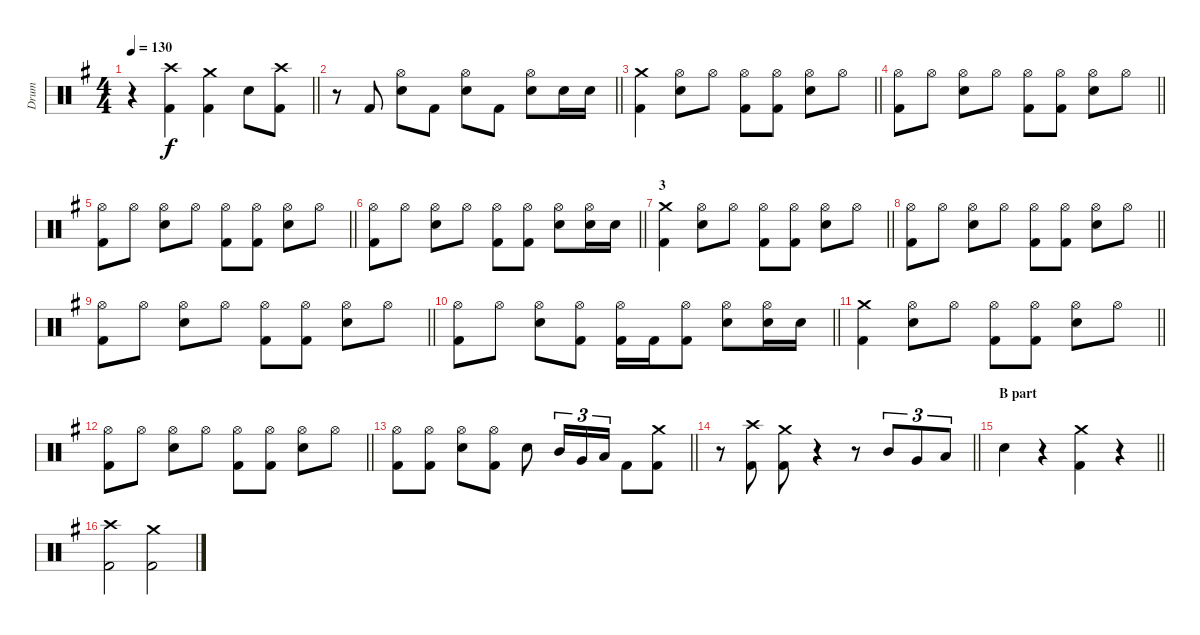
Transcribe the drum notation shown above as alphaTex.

\track ("Drum" "Drum") {instrument percussion}
\staff {score}
\articulation defaults
\ts (4 4)
\section ("" "")
\tempo 130
\clef neutral
\barLineRight lightlight
\ks eminor
r.4{dy f} ("Crash high (hit)" "Kick (hit) 2").4 ("Crash medium (hit)" "Kick (hit) 2").4 "Snare (hit) 2".8 ("Crash high (hit)" "Kick (hit) 2").8 |
\section ("" "")
\barLineRight lightlight
r.8 "Kick (hit) 2".8 ("Hi-Hat (open)" "Snare (hit) 2").8 "Kick (hit) 2".8 ("Hi-Hat (open)" "Snare (hit) 2").8 "Kick (hit) 2".8 ("Hi-Hat (open)" "Snare (hit) 2").8 "Snare (hit) 2".16 "Snare (hit) 2".16 |
\barLineRight lightlight
("Crash medium (hit)" "Kick (hit) 2").4 ("Hi-Hat (open)" "Snare (hit) 2").8 "Hi-Hat (open)".8 ("Hi-Hat (open)" "Kick (hit) 2").8 ("Hi-Hat (open)" "Kick (hit) 2").8 ("Hi-Hat (open)" "Snare (hit) 2").8 "Hi-Hat (open)".8 |
\barLineRight lightlight
("Hi-Hat (open)" "Kick (hit) 2").8 "Hi-Hat (open)".8 ("Hi-Hat (open)" "Snare (hit) 2").8 "Hi-Hat (open)".8 ("Hi-Hat (open)" "Kick (hit) 2").8 ("Hi-Hat (open)" "Kick (hit) 2").8 ("Hi-Hat (open)" "Snare (hit) 2").8 "Hi-Hat (open)".8 |
\barLineRight lightlight
("Hi-Hat (open)" "Kick (hit) 2").8 "Hi-Hat (open)".8 ("Hi-Hat (open)" "Snare (hit) 2").8 "Hi-Hat (open)".8 ("Hi-Hat (open)" "Kick (hit) 2").8 ("Hi-Hat (open)" "Kick (hit) 2").8 ("Hi-Hat (open)" "Snare (hit) 2").8 "Hi-Hat (open)".8 |
\barLineRight lightlight
("Hi-Hat (open)" "Kick (hit) 2").8 "Hi-Hat (open)".8 ("Hi-Hat (open)" "Snare (hit) 2").8 "Hi-Hat (open)".8 ("Hi-Hat (open)" "Kick (hit) 2").8 ("Hi-Hat (open)" "Kick (hit) 2").8 ("Hi-Hat (open)" "Snare (hit) 2").8 ("Hi-Hat (open)" "Snare (hit) 2").16 "Snare (hit) 2".16 |
\section ("" "3")
\barLineRight lightlight
("Crash medium (hit)" "Kick (hit) 2").4 ("Hi-Hat (open)" "Snare (hit) 2").8 "Hi-Hat (open)".8 ("Hi-Hat (open)" "Kick (hit) 2").8 ("Hi-Hat (open)" "Kick (hit) 2").8 ("Hi-Hat (open)" "Snare (hit) 2").8 "Hi-Hat (open)".8 |
\barLineRight lightlight
("Hi-Hat (open)" "Kick (hit) 2").8 "Hi-Hat (open)".8 ("Hi-Hat (open)" "Snare (hit) 2").8 "Hi-Hat (open)".8 ("Hi-Hat (open)" "Kick (hit) 2").8 ("Hi-Hat (open)" "Kick (hit) 2").8 ("Hi-Hat (open)" "Snare (hit) 2").8 "Hi-Hat (open)".8 |
\barLineRight lightlight
("Hi-Hat (open)" "Kick (hit) 2").8 "Hi-Hat (open)".8 ("Hi-Hat (open)" "Snare (hit) 2").8 "Hi-Hat (open)".8 ("Hi-Hat (open)" "Kick (hit) 2").8 ("Hi-Hat (open)" "Kick (hit) 2").8 ("Hi-Hat (open)" "Snare (hit) 2").8 "Hi-Hat (open)".8 |
\barLineRight lightlight
("Hi-Hat (open)" "Kick (hit) 2").8 "Hi-Hat (open)".8 ("Hi-Hat (open)" "Snare (hit) 2").8 ("Hi-Hat (open)" "Kick (hit) 2").8 ("Hi-Hat (open)" "Kick (hit) 2").16 "Kick (hit) 2".16 ("Hi-Hat (open)" "Kick (hit) 2").8 ("Hi-Hat (open)" "Snare (hit) 2").8 ("Hi-Hat (open)" "Snare (hit) 2").16 "Snare (hit) 2".16 |
\barLineRight lightlight
("Crash medium (hit)" "Kick (hit) 2").4 ("Hi-Hat (open)" "Snare (hit) 2").8 "Hi-Hat (open)".8 ("Hi-Hat (open)" "Kick (hit) 2").8 ("Hi-Hat (open)" "Kick (hit) 2").8 ("Hi-Hat (open)" "Snare (hit) 2").8 "Hi-Hat (open)".8 |
\barLineRight lightlight
("Hi-Hat (open)" "Kick (hit) 2").8 "Hi-Hat (open)".8 ("Hi-Hat (open)" "Snare (hit) 2").8 "Hi-Hat (open)".8 ("Hi-Hat (open)" "Kick (hit) 2").8 ("Hi-Hat (open)" "Kick (hit) 2").8 ("Hi-Hat (open)" "Snare (hit) 2").8 "Hi-Hat (open)".8 |
\barLineRight lightlight
("Hi-Hat (open)" "Kick (hit) 2").8 ("Hi-Hat (open)" "Kick (hit) 2").8 ("Hi-Hat (open)" "Snare (hit) 2").8 ("Hi-Hat (open)" "Kick (hit) 2").8 "Snare (hit) 2".8 "Mid Tom (hit)".16{tu (3 2)} "Very Low Tom (hit)".16{tu (3 2)} "Low Floor Tom (hit)".16{tu (3 2)} "Kick (hit) 2".8 ("Crash medium (hit)" "Kick (hit) 2").8 |
\barLineRight lightlight
r.8 ("Crash high (hit)" "Kick (hit) 2").8 ("Crash medium (hit)" "Kick (hit) 2").8 r.4 r.8 "Mid Tom (hit)".8{tu (3 2)} "Very Low Tom (hit)".8{tu (3 2)} "Low Floor Tom (hit)".8{tu (3 2)} |
\section ("" "B part")
\barLineRight lightlight "Snare (hit) 2".4
r.4 ("Crash medium (hit)" "Kick (hit) 2").4 r.4 |
\section ("" "")
("Crash high (hit)" "Kick (hit) 2").2 ("Crash medium (hit)" "Kick (hit) 2").2
